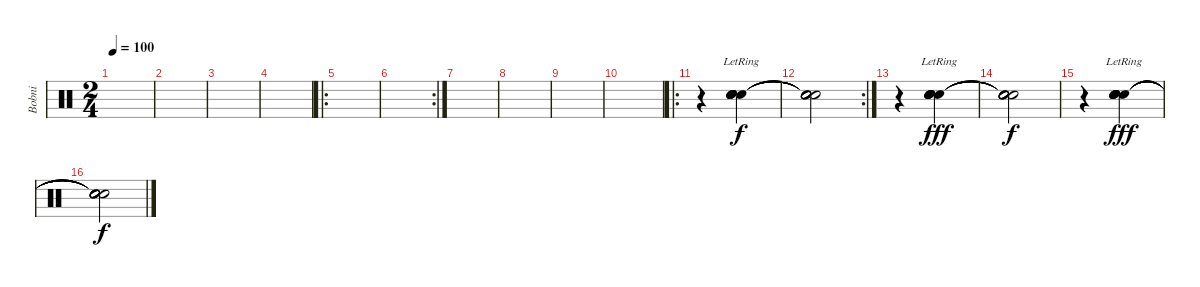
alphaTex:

\track ("Bobni" "Bobni") {instrument percussion}
\staff {score}
\articulation defaults
\ts (2 4)
\tempo 100
\clef neutral
\ks c
|
|
|
|
\ro
|
\rc 2
|
|
|
|
|
\ro
r.4 ("Snare (hit) 2"{lr} "Snare (hit) 2"{lr} "Snare (hit) 2"{lr} "Snare (hit) 2"{lr} "Snare (hit) 2"{lr} "Snare (hit) 2"{lr}).4 |
\rc 2
("Snare (hit)"{t} "Snare (hit)"{t} "Snare (hit)"{t} "Snare (hit)"{t} "Snare (hit)"{t} "Snare (hit)"{t}).2{dy f} |
r.4 ("Snare (hit) 2"{lr} "Snare (hit) 2"{lr} "Snare (hit) 2"{lr} "Snare (hit) 2"{lr} "Snare (hit) 2"{lr} "Snare (hit) 2"{lr}).4{dy fff} |
("Snare (hit)"{t} "Snare (hit)"{t} "Snare (hit)"{t} "Snare (hit)"{t} "Snare (hit)"{t} "Snare (hit)"{t}).2{dy f} |
r.4 ("Snare (hit) 2"{lr} "Snare (hit) 2"{lr} "Snare (hit) 2"{lr} "Snare (hit) 2"{lr} "Snare (hit) 2"{lr} "Snare (hit) 2"{lr}).4{dy fff} |
("Snare (hit)"{t} "Snare (hit)"{t} "Snare (hit)"{t} "Snare (hit)"{t} "Snare (hit)"{t} "Snare (hit)"{t}).2{dy f}
